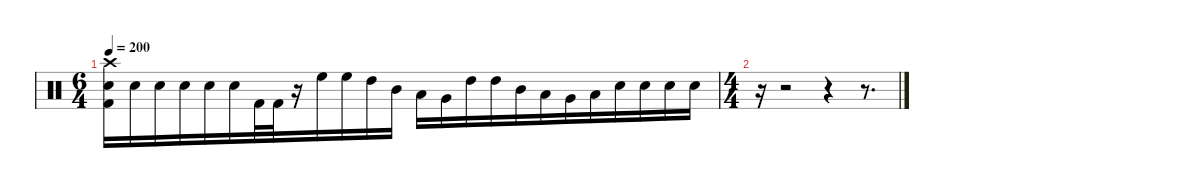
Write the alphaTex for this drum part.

\defaultSystemsLayout 4
\hideDynamics
\bracketExtendMode nobrackets
\singleTrackTrackNamePolicy hidden
\multiTrackTrackNamePolicy hidden
\firstSystemTrackNameMode fullname
\otherSystemsTrackNameOrientation horizontal
\track ("Drums" "drm.") {instrument percussion}
\staff {score}
\articulation defaults
\ts (6 4)
\beaming (8 6 6)
\tempo 200
\clef neutral
\ks c
("Crash high (hit)" "Kick (hit) 2" "Snare (hit) 2").16{dy fff beam Down} "Snare (hit) 2".16{beam Down} "Snare (hit) 2".16{beam Down} "Snare (hit) 2".16{beam Down} "Snare (hit) 2".16{beam Down} "Snare (hit) 2".16{beam Down} "Kick (hit) 2".32{beam Down} "Kick (hit) 2".32{beam Down} r.16{beam Down} "High Floor Tom (hit)".16{beam Down} "High Floor Tom (hit)".16{beam Down} "High Tom (hit)".16{beam Down} "Mid Tom (hit)".16{beam Down} "Low Tom (hit)".16{beam Down} "Very Low Tom (hit)".16{beam Down} "High Tom (hit)".16{beam Down} "High Tom (hit)".16{beam Down} "Mid Tom (hit)".16{beam Down} "Low Tom (hit)".16{beam Down} "Very Low Tom (hit)".16{beam Down} "Low Floor Tom (hit)".16{beam Down} "Snare (hit) 2".16{beam Down} "Snare (hit) 2".16{beam Down} "Snare (hit) 2".16{beam Down} "Snare (hit) 2".16{beam Down} |
\ts (4 4)
\beaming (8 2 2 2 2)
r.16{beam Down} r.2{beam Down} r.4{beam Down} r.8{d beam Down}
